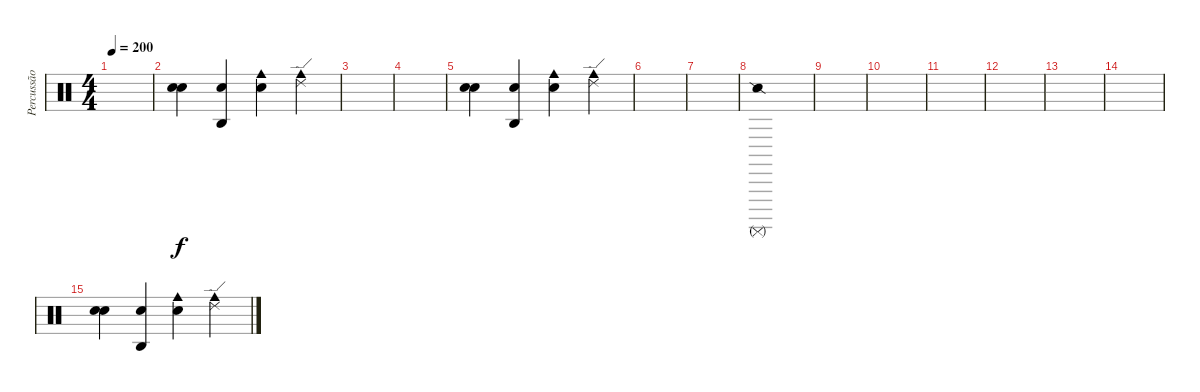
\track ("Percussão" "Percussão") {instrument percussion}
\staff {score}
\articulation defaults
\ts (4 4)
\tempo 200
\clef neutral
\ks c
|
("Metronome (bell)" "Snare (hit)").4 ("Snare (hit)" "Agogo high (hit)").4 ("Snare (hit)" "Cowbell medium (hit)").4 ("Ride (edge) 2" "Cowbell medium (hit)").4 |
|
|
("Metronome (bell)" "Snare (hit)").4 ("Snare (hit)" "Agogo high (hit)").4 ("Snare (hit)" "Cowbell medium (hit)").4 ("Ride (edge) 2" "Cowbell medium (hit)").4 |
|
|
("Surdo (mute)" "Snare (side stick) 2").1 |
|
|
|
|
|
|
("Metronome (bell)" "Snare (hit)").4 ("Snare (hit)" "Agogo high (hit)").4 ("Snare (hit)" "Cowbell medium (hit)").4 ("Ride (edge) 2" "Cowbell medium (hit)").4
